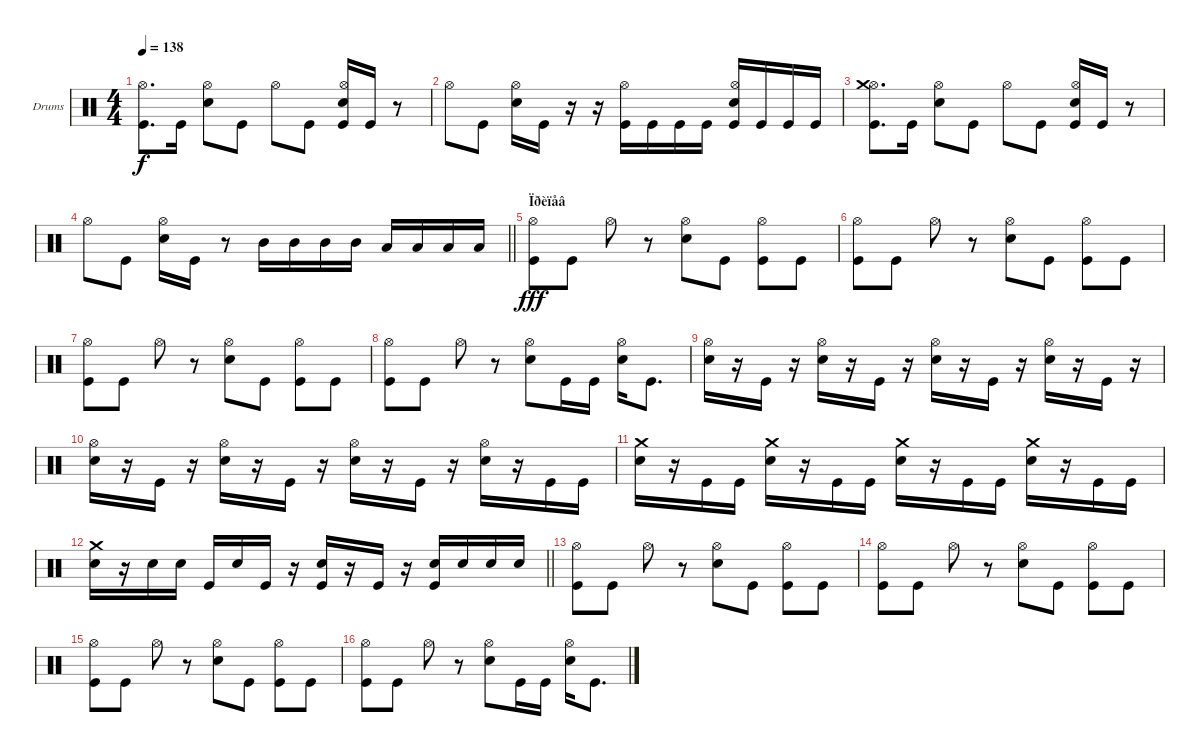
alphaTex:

\bracketExtendMode groupsimilarinstruments
\firstSystemTrackNameOrientation horizontal
\otherSystemsTrackNameOrientation horizontal
\track ("Drumkit" "Drums") {instrument percussion}
\staff {score}
\articulation defaults
\ts (4 4)
\tempo 138
\clef neutral
\ks c
("Kick (hit)" "Hi-Hat (open)").8{d dy f} "Kick (hit)".16 ("Snare (hit) 2" "Hi-Hat (open)").8 "Kick (hit)".8 "Hi-Hat (open)".8 "Kick (hit)".8 ("Kick (hit)" "Snare (hit) 2" "Hi-Hat (open)").16 "Kick (hit)".16 r.8 |
"Hi-Hat (open)".8 "Kick (hit)".8 ("Hi-Hat (open)" "Snare (hit) 2").16 "Kick (hit)".16 r.16 r.16 ("Kick (hit)" "Hi-Hat (open)").16 "Kick (hit)".16 "Kick (hit)".16 "Kick (hit)".16 ("Kick (hit)" "Snare (hit) 2" "Hi-Hat (open)").16 "Kick (hit)".16 "Kick (hit)".16 "Kick (hit)".16 |
("Kick (hit)" "Hi-Hat (open)" "Crash medium (hit)").8{d} "Kick (hit)".16 ("Snare (hit) 2" "Hi-Hat (open)").8 "Kick (hit)".8 "Hi-Hat (open)".8 "Kick (hit)".8 ("Kick (hit)" "Snare (hit) 2" "Hi-Hat (open)").16 "Kick (hit)".16 r.8 |
\barLineRight lightlight "Hi-Hat (open)".8 "Kick (hit)".8
("Hi-Hat (open)" "Snare (hit) 2").16 "Kick (hit)".16 r.8 "Mid Tom (hit)".16 "Mid Tom (hit)".16 "Mid Tom (hit)".16 "Mid Tom (hit)".16 "Low Tom (hit)".16 "Low Tom (hit)".16 "Low Tom (hit)".16 "Low Tom (hit)".16 |
\section ("" "Ïðèïåâ")
("Kick (hit)" "Hi-Hat (open)").8{dy fff} "Kick (hit)".8 "Hi-Hat (open)".8 r.8 ("Snare (hit) 2" "Hi-Hat (open)").8 "Kick (hit)".8 ("Kick (hit)" "Hi-Hat (open)").8 "Kick (hit)".8 |
("Kick (hit)" "Hi-Hat (open)").8 "Kick (hit)".8 "Hi-Hat (open)".8 r.8 ("Snare (hit) 2" "Hi-Hat (open)").8 "Kick (hit)".8 ("Kick (hit)" "Hi-Hat (open)").8 "Kick (hit)".8 |
("Kick (hit)" "Hi-Hat (open)").8 "Kick (hit)".8 "Hi-Hat (open)".8 r.8 ("Snare (hit) 2" "Hi-Hat (open)").8 "Kick (hit)".8 ("Kick (hit)" "Hi-Hat (open)").8 "Kick (hit)".8 |
("Kick (hit)" "Hi-Hat (open)").8 "Kick (hit)".8 "Hi-Hat (open)".8 r.8 ("Snare (hit) 2" "Hi-Hat (open)").8 "Kick (hit)".16 "Kick (hit)".16 ("Snare (hit) 2" "Hi-Hat (open)").16 "Kick (hit)".8{d} |
("Snare (hit) 2" "Hi-Hat (open)").16 r.16 "Kick (hit)".16 r.16 ("Snare (hit) 2" "Hi-Hat (open)").16 r.16 "Kick (hit)".16 r.16 ("Snare (hit) 2" "Hi-Hat (open)").16 r.16 "Kick (hit)".16 r.16 ("Snare (hit) 2" "Hi-Hat (open)").16 r.16 "Kick (hit)".16 r.16 |
("Snare (hit) 2" "Hi-Hat (open)").16 r.16 "Kick (hit)".16 r.16 ("Snare (hit) 2" "Hi-Hat (open)").16 r.16 "Kick (hit)".16 r.16 ("Snare (hit) 2" "Hi-Hat (open)").16 r.16 "Kick (hit)".16 r.16 ("Snare (hit) 2" "Hi-Hat (open)").16 r.16 "Kick (hit)".16 "Kick (hit)".16 |
("Snare (hit) 2" "Crash medium (hit)").16 r.16 "Kick (hit)".16 "Kick (hit)".16 ("Snare (hit) 2" "Crash medium (hit)").16 r.16 "Kick (hit)".16 "Kick (hit)".16 ("Snare (hit) 2" "Crash medium (hit)").16 r.16 "Kick (hit)".16 "Kick (hit)".16 ("Snare (hit) 2" "Crash medium (hit)").16 r.16 "Kick (hit)".16 "Kick (hit)".16 |
\barLineRight lightlight
("Snare (hit) 2" "Crash medium (hit)").16 r.16 "Snare (hit) 2".16 "Snare (hit) 2".16 "Kick (hit)".16 "Snare (hit) 2".16 "Kick (hit)".16 r.16 ("Snare (hit) 2" "Kick (hit)").16 r.16 "Kick (hit)".16 r.16 ("Snare (hit) 2" "Kick (hit)").16 "Snare (hit) 2".16 "Snare (hit) 2".16 "Snare (hit) 2".16 |
("Kick (hit)" "Hi-Hat (open)").8 "Kick (hit)".8 "Hi-Hat (open)".8 r.8 ("Snare (hit) 2" "Hi-Hat (open)").8 "Kick (hit)".8 ("Kick (hit)" "Hi-Hat (open)").8 "Kick (hit)".8 |
("Kick (hit)" "Hi-Hat (open)").8 "Kick (hit)".8 "Hi-Hat (open)".8 r.8 ("Snare (hit) 2" "Hi-Hat (open)").8 "Kick (hit)".8 ("Kick (hit)" "Hi-Hat (open)").8 "Kick (hit)".8 |
("Kick (hit)" "Hi-Hat (open)").8 "Kick (hit)".8 "Hi-Hat (open)".8 r.8 ("Snare (hit) 2" "Hi-Hat (open)").8 "Kick (hit)".8 ("Kick (hit)" "Hi-Hat (open)").8 "Kick (hit)".8 |
("Kick (hit)" "Hi-Hat (open)").8 "Kick (hit)".8 "Hi-Hat (open)".8 r.8 ("Snare (hit) 2" "Hi-Hat (open)").8 "Kick (hit)".16 "Kick (hit)".16 ("Snare (hit) 2" "Hi-Hat (open)").16 "Kick (hit)".8{d}
